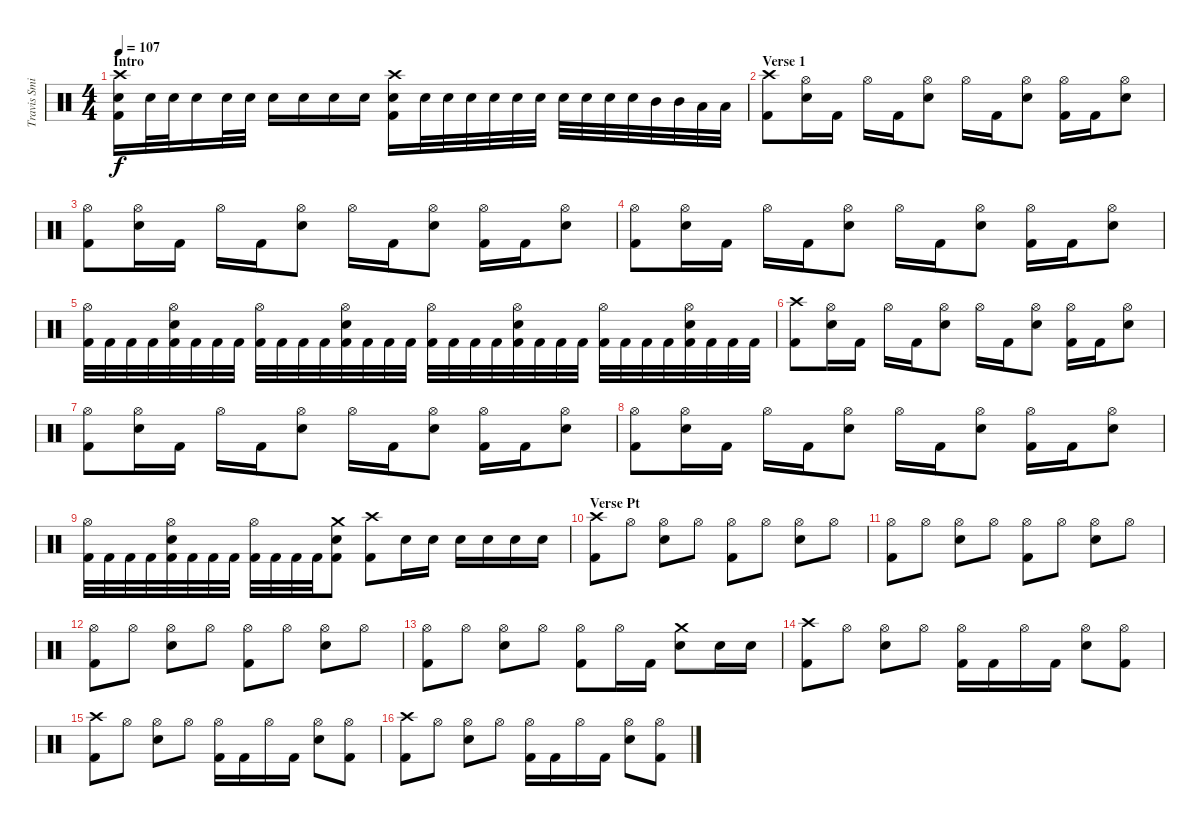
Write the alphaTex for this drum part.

\track ("Travis Smith" "Travis Smi") {instrument percussion}
\staff {score}
\articulation defaults
\ts (4 4)
\section ("" "Intro")
\tempo 107
\clef neutral
\ks c
("Crash high (hit)" "Electric Snare (hit)" "Kick (hit) 2").16{dy f} "Electric Snare (hit)".32 "Electric Snare (hit)".32 "Electric Snare (hit)".16 "Electric Snare (hit)".32 "Electric Snare (hit)".32 "Electric Snare (hit)".16 "Electric Snare (hit)".16 "Electric Snare (hit)".16 "Electric Snare (hit)".16 ("Crash high (hit)" "Electric Snare (hit)" "Kick (hit) 2").16 "Electric Snare (hit)".32 "Electric Snare (hit)".32 "Electric Snare (hit)".32 "Electric Snare (hit)".32 "Electric Snare (hit)".32 "Electric Snare (hit)".32 "Electric Snare (hit)".32 "Electric Snare (hit)".32 "Electric Snare (hit)".32 "Electric Snare (hit)".32 "Mid Tom (hit)".32 "Mid Tom (hit)".32 "Low Tom (hit)".32 "Low Tom (hit)".32 |
\section ("" "Verse 1")
("Crash high (hit)" "Kick (hit) 2").8 ("Hi-Hat (open)" "Electric Snare (hit)").16 "Kick (hit) 2".16 "Hi-Hat (open)".16 "Kick (hit) 2".16 ("Hi-Hat (open)" "Electric Snare (hit)").8 "Hi-Hat (open)".16 "Kick (hit) 2".16 ("Hi-Hat (open)" "Electric Snare (hit)").8 ("Hi-Hat (open)" "Kick (hit) 2").16 "Kick (hit) 2".16 ("Hi-Hat (open)" "Electric Snare (hit)").8 |
("Hi-Hat (open)" "Kick (hit) 2").8 ("Hi-Hat (open)" "Electric Snare (hit)").16 "Kick (hit) 2".16 "Hi-Hat (open)".16 "Kick (hit) 2".16 ("Hi-Hat (open)" "Electric Snare (hit)").8 "Hi-Hat (open)".16 "Kick (hit) 2".16 ("Hi-Hat (open)" "Electric Snare (hit)").8 ("Hi-Hat (open)" "Kick (hit) 2").16 "Kick (hit) 2".16 ("Hi-Hat (open)" "Electric Snare (hit)").8 |
("Hi-Hat (open)" "Kick (hit) 2").8 ("Hi-Hat (open)" "Electric Snare (hit)").16 "Kick (hit) 2".16 "Hi-Hat (open)".16 "Kick (hit) 2".16 ("Hi-Hat (open)" "Electric Snare (hit)").8 "Hi-Hat (open)".16 "Kick (hit) 2".16 ("Hi-Hat (open)" "Electric Snare (hit)").8 ("Hi-Hat (open)" "Kick (hit) 2").16 "Kick (hit) 2".16 ("Hi-Hat (open)" "Electric Snare (hit)").8 |
("Hi-Hat (open)" "Kick (hit) 2").32 "Kick (hit) 2".32 "Kick (hit) 2".32 "Kick (hit) 2".32 ("Hi-Hat (open)" "Electric Snare (hit)" "Kick (hit) 2").32 "Kick (hit) 2".32 "Kick (hit) 2".32 "Kick (hit) 2".32 ("Hi-Hat (open)" "Kick (hit) 2").32 "Kick (hit) 2".32 "Kick (hit) 2".32 "Kick (hit) 2".32 ("Hi-Hat (open)" "Electric Snare (hit)" "Kick (hit) 2").32 "Kick (hit) 2".32 "Kick (hit) 2".32 "Kick (hit) 2".32 ("Hi-Hat (open)" "Kick (hit) 2").32 "Kick (hit) 2".32 "Kick (hit) 2".32 "Kick (hit) 2".32 ("Hi-Hat (open)" "Electric Snare (hit)" "Kick (hit) 2").32 "Kick (hit) 2".32 "Kick (hit) 2".32 "Kick (hit) 2".32 ("Hi-Hat (open)" "Kick (hit) 2").32 "Kick (hit) 2".32 "Kick (hit) 2".32 "Kick (hit) 2".32 ("Hi-Hat (open)" "Electric Snare (hit)" "Kick (hit) 2").32 "Kick (hit) 2".32 "Kick (hit) 2".32 "Kick (hit) 2".32 |
("Crash high (hit)" "Kick (hit) 2").8 ("Hi-Hat (open)" "Electric Snare (hit)").16 "Kick (hit) 2".16 "Hi-Hat (open)".16 "Kick (hit) 2".16 ("Hi-Hat (open)" "Electric Snare (hit)").8 "Hi-Hat (open)".16 "Kick (hit) 2".16 ("Hi-Hat (open)" "Electric Snare (hit)").8 ("Hi-Hat (open)" "Kick (hit) 2").16 "Kick (hit) 2".16 ("Hi-Hat (open)" "Electric Snare (hit)").8 |
("Hi-Hat (open)" "Kick (hit) 2").8 ("Hi-Hat (open)" "Electric Snare (hit)").16 "Kick (hit) 2".16 "Hi-Hat (open)".16 "Kick (hit) 2".16 ("Hi-Hat (open)" "Electric Snare (hit)").8 "Hi-Hat (open)".16 "Kick (hit) 2".16 ("Hi-Hat (open)" "Electric Snare (hit)").8 ("Hi-Hat (open)" "Kick (hit) 2").16 "Kick (hit) 2".16 ("Hi-Hat (open)" "Electric Snare (hit)").8 |
("Hi-Hat (open)" "Kick (hit) 2").8 ("Hi-Hat (open)" "Electric Snare (hit)").16 "Kick (hit) 2".16 "Hi-Hat (open)".16 "Kick (hit) 2".16 ("Hi-Hat (open)" "Electric Snare (hit)").8 "Hi-Hat (open)".16 "Kick (hit) 2".16 ("Hi-Hat (open)" "Electric Snare (hit)").8 ("Hi-Hat (open)" "Kick (hit) 2").16 "Kick (hit) 2".16 ("Hi-Hat (open)" "Electric Snare (hit)").8 |
("Hi-Hat (open)" "Kick (hit) 2").32 "Kick (hit) 2".32 "Kick (hit) 2".32 "Kick (hit) 2".32 ("Hi-Hat (open)" "Electric Snare (hit)" "Kick (hit) 2").32 "Kick (hit) 2".32 "Kick (hit) 2".32 "Kick (hit) 2".32 ("Hi-Hat (open)" "Kick (hit) 2").32 "Kick (hit) 2".32 "Kick (hit) 2".32 "Kick (hit) 2".32 ("Crash medium (hit)" "Electric Snare (hit)" "Kick (hit) 2").8 ("Crash high (hit)" "Kick (hit) 2").8 "Electric Snare (hit)".16 "Electric Snare (hit)".16 "Electric Snare (hit)".16 "Electric Snare (hit)".16 "Electric Snare (hit)".16 "Electric Snare (hit)".16 |
\section ("" "Verse Pt")
("Crash high (hit)" "Kick (hit) 2").8 "Hi-Hat (open)".8 ("Hi-Hat (open)" "Electric Snare (hit)").8 "Hi-Hat (open)".8 ("Hi-Hat (open)" "Kick (hit) 2").8 "Hi-Hat (open)".8 ("Hi-Hat (open)" "Electric Snare (hit)").8 "Hi-Hat (open)".8 |
("Hi-Hat (open)" "Kick (hit) 2").8 "Hi-Hat (open)".8 ("Hi-Hat (open)" "Electric Snare (hit)").8 "Hi-Hat (open)".8 ("Hi-Hat (open)" "Kick (hit) 2").8 "Hi-Hat (open)".8 ("Hi-Hat (open)" "Electric Snare (hit)").8 "Hi-Hat (open)".8 |
("Hi-Hat (open)" "Kick (hit) 2").8 "Hi-Hat (open)".8 ("Hi-Hat (open)" "Electric Snare (hit)").8 "Hi-Hat (open)".8 ("Hi-Hat (open)" "Kick (hit) 2").8 "Hi-Hat (open)".8 ("Hi-Hat (open)" "Electric Snare (hit)").8 "Hi-Hat (open)".8 |
("Hi-Hat (open)" "Kick (hit) 2").8 "Hi-Hat (open)".8 ("Hi-Hat (open)" "Electric Snare (hit)").8 "Hi-Hat (open)".8 ("Hi-Hat (open)" "Kick (hit) 2").8 "Hi-Hat (open)".16 "Kick (hit) 2".16 ("Crash medium (hit)" "Electric Snare (hit)").8 "Electric Snare (hit)".16 "Electric Snare (hit)".16 |
("Crash high (hit)" "Kick (hit) 2").8 "Hi-Hat (open)".8 ("Hi-Hat (open)" "Electric Snare (hit)").8 "Hi-Hat (open)".8 ("Hi-Hat (open)" "Kick (hit) 2").16 "Kick (hit) 2".16 "Hi-Hat (open)".16 "Kick (hit) 2".16 ("Hi-Hat (open)" "Electric Snare (hit)").8 ("Hi-Hat (open)" "Kick (hit) 2").8 |
("Crash high (hit)" "Kick (hit) 2").8 "Hi-Hat (open)".8 ("Hi-Hat (open)" "Electric Snare (hit)").8 "Hi-Hat (open)".8 ("Hi-Hat (open)" "Kick (hit) 2").16 "Kick (hit) 2".16 "Hi-Hat (open)".16 "Kick (hit) 2".16 ("Hi-Hat (open)" "Electric Snare (hit)").8 ("Hi-Hat (open)" "Kick (hit) 2").8 |
("Crash high (hit)" "Kick (hit) 2").8 "Hi-Hat (open)".8 ("Hi-Hat (open)" "Electric Snare (hit)").8 "Hi-Hat (open)".8 ("Hi-Hat (open)" "Kick (hit) 2").16 "Kick (hit) 2".16 "Hi-Hat (open)".16 "Kick (hit) 2".16 ("Hi-Hat (open)" "Electric Snare (hit)").8 ("Hi-Hat (open)" "Kick (hit) 2").8
